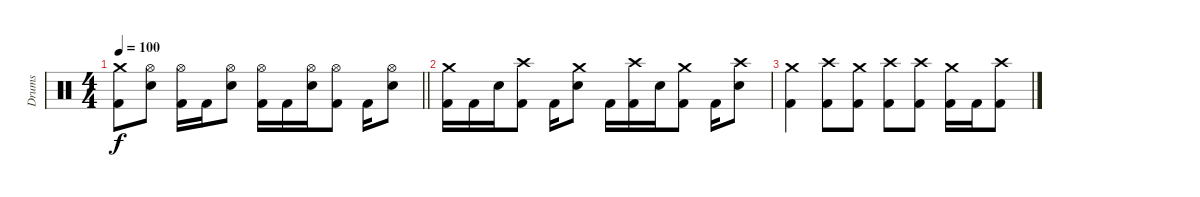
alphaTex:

\track ("Drums" "Drums") {instrument percussion}
\staff {score}
\articulation defaults
\ts (4 4)
\tempo 100
\clef neutral
\barLineRight lightlight
\ks c
("Crash medium (hit)" "Kick (hit) 2").8{dy f} ("Hi-Hat (open)" "Snare (hit) 2").8 ("Hi-Hat (open)" "Kick (hit) 2").16 "Kick (hit) 2".16 ("Hi-Hat (open)" "Snare (hit) 2").8 ("Hi-Hat (open)" "Kick (hit) 2").16 "Kick (hit) 2".16 ("Hi-Hat (open)" "Snare (hit) 2").16 ("Hi-Hat (open)" "Kick (hit) 2").8 "Kick (hit) 2".16 ("Hi-Hat (open)" "Snare (hit) 2").8 |
("Crash medium (hit)" "Kick (hit) 2").16 "Kick (hit) 2".16 "Snare (hit) 2".16 ("Crash high (hit)" "Kick (hit) 2").8 "Kick (hit) 2".16 ("Crash medium (hit)" "Snare (hit) 2").8 "Kick (hit) 2".16 ("Crash high (hit)" "Kick (hit) 2").16 "Snare (hit) 2".16 ("Crash medium (hit)" "Kick (hit) 2").8 "Kick (hit) 2".16 ("Crash high (hit)" "Snare (hit) 2").8 |
("Crash medium (hit)" "Kick (hit) 2").4 ("Crash high (hit)" "Kick (hit) 2").8 ("Crash medium (hit)" "Kick (hit) 2").8 ("Crash high (hit)" "Kick (hit) 2").8 ("Crash high (hit)" "Kick (hit) 2").8 ("Crash medium (hit)" "Kick (hit) 2").16 "Kick (hit) 2".16 ("Crash high (hit)" "Kick (hit) 2").8
